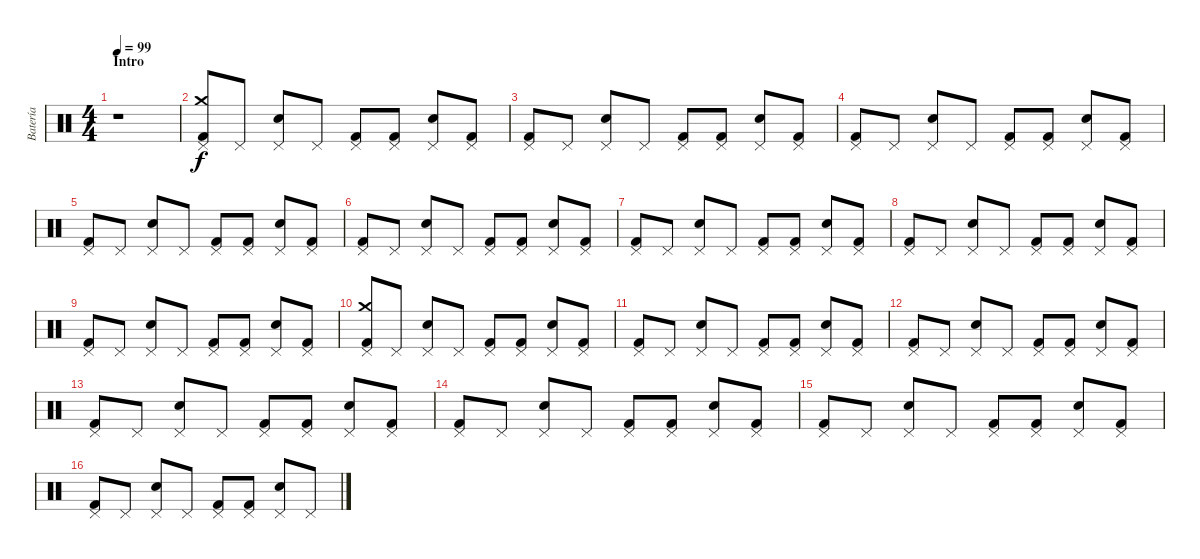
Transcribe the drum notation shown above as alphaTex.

\track ("Batería" "Batería") {instrument percussion}
\staff {score}
\articulation defaults
\ts (4 4)
\section ("" "Intro")
\tempo 99
\clef neutral
\ks c
r.1{dy f} |
("Pedal Hi-Hat (hit)" "Crash medium (hit)" "Kick (hit) 2").8 "Pedal Hi-Hat (hit)".8 ("Pedal Hi-Hat (hit)" "Snare (hit) 2").8 "Pedal Hi-Hat (hit)".8 ("Pedal Hi-Hat (hit)" "Kick (hit) 2").8 ("Pedal Hi-Hat (hit)" "Kick (hit) 2").8 ("Pedal Hi-Hat (hit)" "Snare (hit) 2").8 ("Pedal Hi-Hat (hit)" "Kick (hit) 2").8 |
("Kick (hit) 2" "Pedal Hi-Hat (hit)").8 "Pedal Hi-Hat (hit)".8 ("Snare (hit) 2" "Pedal Hi-Hat (hit)").8 "Pedal Hi-Hat (hit)".8 ("Kick (hit) 2" "Pedal Hi-Hat (hit)").8 ("Kick (hit) 2" "Pedal Hi-Hat (hit)").8 ("Snare (hit) 2" "Pedal Hi-Hat (hit)").8 ("Kick (hit) 2" "Pedal Hi-Hat (hit)").8 |
("Kick (hit) 2" "Pedal Hi-Hat (hit)").8 "Pedal Hi-Hat (hit)".8 ("Snare (hit) 2" "Pedal Hi-Hat (hit)").8 "Pedal Hi-Hat (hit)".8 ("Kick (hit) 2" "Pedal Hi-Hat (hit)").8 ("Kick (hit) 2" "Pedal Hi-Hat (hit)").8 ("Snare (hit) 2" "Pedal Hi-Hat (hit)").8 ("Kick (hit) 2" "Pedal Hi-Hat (hit)").8 |
("Kick (hit) 2" "Pedal Hi-Hat (hit)").8 "Pedal Hi-Hat (hit)".8 ("Snare (hit) 2" "Pedal Hi-Hat (hit)").8 "Pedal Hi-Hat (hit)".8 ("Kick (hit) 2" "Pedal Hi-Hat (hit)").8 ("Kick (hit) 2" "Pedal Hi-Hat (hit)").8 ("Snare (hit) 2" "Pedal Hi-Hat (hit)").8 ("Kick (hit) 2" "Pedal Hi-Hat (hit)").8 |
("Kick (hit) 2" "Pedal Hi-Hat (hit)").8 "Pedal Hi-Hat (hit)".8 ("Snare (hit) 2" "Pedal Hi-Hat (hit)").8 "Pedal Hi-Hat (hit)".8 ("Kick (hit) 2" "Pedal Hi-Hat (hit)").8 ("Kick (hit) 2" "Pedal Hi-Hat (hit)").8 ("Snare (hit) 2" "Pedal Hi-Hat (hit)").8 ("Kick (hit) 2" "Pedal Hi-Hat (hit)").8 |
("Kick (hit) 2" "Pedal Hi-Hat (hit)").8 "Pedal Hi-Hat (hit)".8 ("Snare (hit) 2" "Pedal Hi-Hat (hit)").8 "Pedal Hi-Hat (hit)".8 ("Kick (hit) 2" "Pedal Hi-Hat (hit)").8 ("Kick (hit) 2" "Pedal Hi-Hat (hit)").8 ("Snare (hit) 2" "Pedal Hi-Hat (hit)").8 ("Kick (hit) 2" "Pedal Hi-Hat (hit)").8 |
("Pedal Hi-Hat (hit)" "Kick (hit) 2").8 "Pedal Hi-Hat (hit)".8 ("Pedal Hi-Hat (hit)" "Snare (hit) 2").8 "Pedal Hi-Hat (hit)".8 ("Pedal Hi-Hat (hit)" "Kick (hit) 2").8 ("Pedal Hi-Hat (hit)" "Kick (hit) 2").8 ("Pedal Hi-Hat (hit)" "Snare (hit) 2").8 ("Pedal Hi-Hat (hit)" "Kick (hit) 2").8 |
("Pedal Hi-Hat (hit)" "Kick (hit) 2").8 "Pedal Hi-Hat (hit)".8 ("Pedal Hi-Hat (hit)" "Snare (hit) 2").8 "Pedal Hi-Hat (hit)".8 ("Pedal Hi-Hat (hit)" "Kick (hit) 2").8 ("Pedal Hi-Hat (hit)" "Kick (hit) 2").8 ("Pedal Hi-Hat (hit)" "Snare (hit) 2").8 ("Pedal Hi-Hat (hit)" "Kick (hit) 2").8 |
("Crash medium (hit)" "Kick (hit) 2" "Pedal Hi-Hat (hit)").8 "Pedal Hi-Hat (hit)".8 ("Snare (hit) 2" "Pedal Hi-Hat (hit)").8 "Pedal Hi-Hat (hit)".8 ("Kick (hit) 2" "Pedal Hi-Hat (hit)").8 ("Kick (hit) 2" "Pedal Hi-Hat (hit)").8 ("Snare (hit) 2" "Pedal Hi-Hat (hit)").8 ("Kick (hit) 2" "Pedal Hi-Hat (hit)").8 |
("Kick (hit) 2" "Pedal Hi-Hat (hit)").8 "Pedal Hi-Hat (hit)".8 ("Snare (hit) 2" "Pedal Hi-Hat (hit)").8 "Pedal Hi-Hat (hit)".8 ("Kick (hit) 2" "Pedal Hi-Hat (hit)").8 ("Kick (hit) 2" "Pedal Hi-Hat (hit)").8 ("Snare (hit) 2" "Pedal Hi-Hat (hit)").8 ("Kick (hit) 2" "Pedal Hi-Hat (hit)").8 |
("Kick (hit) 2" "Pedal Hi-Hat (hit)").8 "Pedal Hi-Hat (hit)".8 ("Snare (hit) 2" "Pedal Hi-Hat (hit)").8 "Pedal Hi-Hat (hit)".8 ("Kick (hit) 2" "Pedal Hi-Hat (hit)").8 ("Kick (hit) 2" "Pedal Hi-Hat (hit)").8 ("Snare (hit) 2" "Pedal Hi-Hat (hit)").8 ("Kick (hit) 2" "Pedal Hi-Hat (hit)").8 |
("Kick (hit) 2" "Pedal Hi-Hat (hit)").8 "Pedal Hi-Hat (hit)".8 ("Snare (hit) 2" "Pedal Hi-Hat (hit)").8 "Pedal Hi-Hat (hit)".8 ("Kick (hit) 2" "Pedal Hi-Hat (hit)").8 ("Kick (hit) 2" "Pedal Hi-Hat (hit)").8 ("Snare (hit) 2" "Pedal Hi-Hat (hit)").8 ("Kick (hit) 2" "Pedal Hi-Hat (hit)").8 |
("Pedal Hi-Hat (hit)" "Kick (hit) 2").8 "Pedal Hi-Hat (hit)".8 ("Pedal Hi-Hat (hit)" "Snare (hit) 2").8 "Pedal Hi-Hat (hit)".8 ("Pedal Hi-Hat (hit)" "Kick (hit) 2").8 ("Pedal Hi-Hat (hit)" "Kick (hit) 2").8 ("Pedal Hi-Hat (hit)" "Snare (hit) 2").8 ("Pedal Hi-Hat (hit)" "Kick (hit) 2").8 |
("Pedal Hi-Hat (hit)" "Kick (hit) 2").8 "Pedal Hi-Hat (hit)".8 ("Pedal Hi-Hat (hit)" "Snare (hit) 2").8 "Pedal Hi-Hat (hit)".8 ("Pedal Hi-Hat (hit)" "Kick (hit) 2").8 ("Pedal Hi-Hat (hit)" "Kick (hit) 2").8 ("Pedal Hi-Hat (hit)" "Snare (hit) 2").8 ("Pedal Hi-Hat (hit)" "Kick (hit) 2").8 |
("Kick (hit) 2" "Pedal Hi-Hat (hit)").8 "Pedal Hi-Hat (hit)".8 ("Snare (hit) 2" "Pedal Hi-Hat (hit)").8 "Pedal Hi-Hat (hit)".8 ("Kick (hit) 2" "Pedal Hi-Hat (hit)").8 ("Kick (hit) 2" "Pedal Hi-Hat (hit)").8 ("Snare (hit) 2" "Pedal Hi-Hat (hit)").8 "Pedal Hi-Hat (hit)".8
